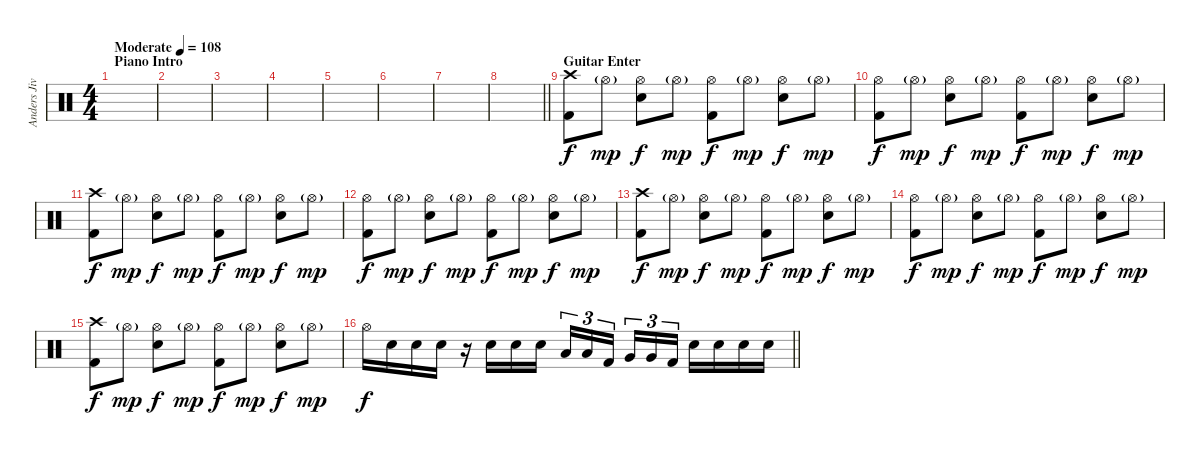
\track ("Anders Jivarp" "Anders Jiv") {instrument percussion}
\staff {score}
\articulation defaults
\ts (4 4)
\section ("" "Piano Intro")
\tempo (108 "Moderate")
\clef neutral
\ks c
|
|
|
|
|
|
|
\barLineRight lightlight
|
\section ("" "Guitar Enter")
("Crash high (hit)" "Kick (hit) 2").8 "Hi-Hat (open)"{g}.8{dy mp} ("Hi-Hat (open)" "Snare (hit) 2").8{dy f} "Hi-Hat (open)"{g}.8{dy mp} ("Hi-Hat (open)" "Kick (hit) 2").8{dy f} "Hi-Hat (open)"{g}.8{dy mp} ("Hi-Hat (open)" "Snare (hit) 2").8{dy f} "Hi-Hat (open)"{g}.8{dy mp} |
("Hi-Hat (open)" "Kick (hit) 2").8{dy f} "Hi-Hat (open)"{g}.8{dy mp} ("Hi-Hat (open)" "Snare (hit) 2").8{dy f} "Hi-Hat (open)"{g}.8{dy mp} ("Hi-Hat (open)" "Kick (hit) 2").8{dy f} "Hi-Hat (open)"{g}.8{dy mp} ("Hi-Hat (open)" "Snare (hit) 2").8{dy f} "Hi-Hat (open)"{g}.8{dy mp} |
("Crash high (hit)" "Kick (hit) 2").8{dy f} "Hi-Hat (open)"{g}.8{dy mp} ("Hi-Hat (open)" "Snare (hit) 2").8{dy f} "Hi-Hat (open)"{g}.8{dy mp} ("Hi-Hat (open)" "Kick (hit) 2").8{dy f} "Hi-Hat (open)"{g}.8{dy mp} ("Hi-Hat (open)" "Snare (hit) 2").8{dy f} "Hi-Hat (open)"{g}.8{dy mp} |
("Hi-Hat (open)" "Kick (hit) 2").8{dy f} "Hi-Hat (open)"{g}.8{dy mp} ("Hi-Hat (open)" "Snare (hit) 2").8{dy f} "Hi-Hat (open)"{g}.8{dy mp} ("Hi-Hat (open)" "Kick (hit) 2").8{dy f} "Hi-Hat (open)"{g}.8{dy mp} ("Hi-Hat (open)" "Snare (hit) 2").8{dy f} "Hi-Hat (open)"{g}.8{dy mp} |
("Crash high (hit)" "Kick (hit) 2").8{dy f} "Hi-Hat (open)"{g}.8{dy mp} ("Hi-Hat (open)" "Snare (hit) 2").8{dy f} "Hi-Hat (open)"{g}.8{dy mp} ("Hi-Hat (open)" "Kick (hit) 2").8{dy f} "Hi-Hat (open)"{g}.8{dy mp} ("Hi-Hat (open)" "Snare (hit) 2").8{dy f} "Hi-Hat (open)"{g}.8{dy mp} |
("Hi-Hat (open)" "Kick (hit) 2").8{dy f} "Hi-Hat (open)"{g}.8{dy mp} ("Hi-Hat (open)" "Snare (hit) 2").8{dy f} "Hi-Hat (open)"{g}.8{dy mp} ("Hi-Hat (open)" "Kick (hit) 2").8{dy f} "Hi-Hat (open)"{g}.8{dy mp} ("Hi-Hat (open)" "Snare (hit) 2").8{dy f} "Hi-Hat (open)"{g}.8{dy mp} |
("Crash high (hit)" "Kick (hit) 2").8{dy f} "Hi-Hat (open)"{g}.8{dy mp} ("Hi-Hat (open)" "Snare (hit) 2").8{dy f} "Hi-Hat (open)"{g}.8{dy mp} ("Hi-Hat (open)" "Kick (hit) 2").8{dy f} "Hi-Hat (open)"{g}.8{dy mp} ("Hi-Hat (open)" "Snare (hit) 2").8{dy f} "Hi-Hat (open)"{g}.8{dy mp} |
\barLineRight lightlight "Hi-Hat (open)".16{dy f} "Snare (hit) 2".16 "Snare (hit) 2".16 "Snare (hit) 2".16
r.16 "Snare (hit) 2".16 "Snare (hit) 2".16 "Snare (hit) 2".16 "Low Tom (hit)".16{tu (3 2)} "Low Tom (hit)".16{tu (3 2)} "Kick (hit) 2".16{tu (3 2) beam splitsecondary} "Very Low Tom (hit)".16{tu (3 2)} "Very Low Tom (hit)".16{tu (3 2)} "Kick (hit) 2".16{tu (3 2)} "Snare (hit) 2".16 "Snare (hit) 2".16 "Snare (hit) 2".16 "Snare (hit) 2".16
